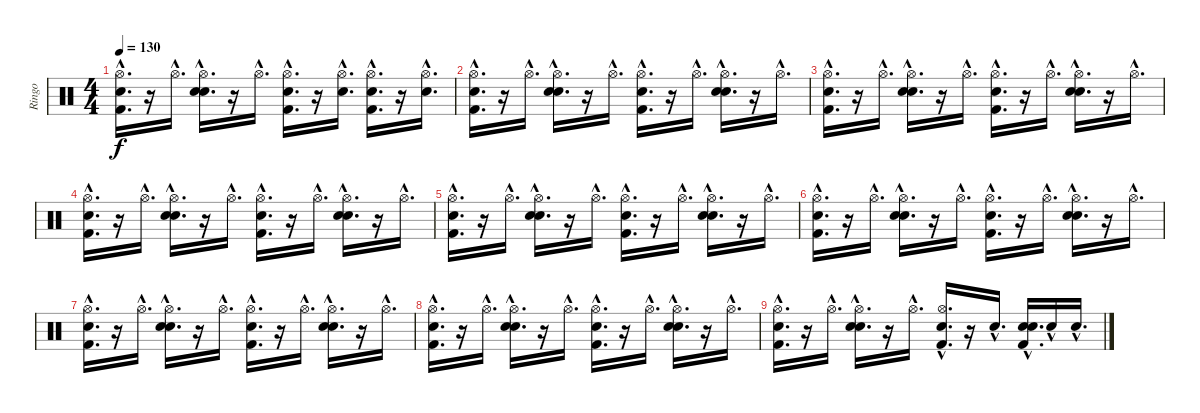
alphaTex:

\track ("Ringo" "Ringo") {instrument percussion}
\staff {score}
\articulation defaults
\ts (4 4)
\tempo 130
\clef neutral
\ks c
("Kick (hit) 2"{hac} "Hi-Hat (open)"{hac} "Hand Clap (hit)"{hac}).16{d dy f} r.16 "Hi-Hat (open)"{hac}.16{d} ("Snare (hit) 2"{hac} "Hi-Hat (open)"{hac} "Hand Clap (hit)"{hac}).16{d} r.16 "Hi-Hat (open)"{hac}.16{d} ("Kick (hit) 2"{hac} "Hi-Hat (open)"{hac} "Hand Clap (hit)"{hac}).16{d} r.16 ("Snare (hit) 2"{hac} "Hi-Hat (open)"{hac}).16{d} ("Kick (hit) 2"{hac} "Hi-Hat (open)"{hac} "Hand Clap (hit)"{hac}).16{d} r.16 ("Snare (hit) 2"{hac} "Hi-Hat (open)"{hac}).16{d} |
("Hi-Hat (open)"{hac} "Kick (hit) 2"{hac} "Hand Clap (hit)"{hac}).16{d} r.16 "Hi-Hat (open)"{hac}.16{d} ("Hi-Hat (open)"{hac} "Snare (hit) 2"{hac} "Hand Clap (hit)"{hac}).16{d} r.16 "Hi-Hat (open)"{hac}.16{d} ("Hi-Hat (open)"{hac} "Kick (hit) 2"{hac} "Hand Clap (hit)"{hac}).16{d} r.16 "Hi-Hat (open)"{hac}.16{d} ("Hi-Hat (open)"{hac} "Snare (hit) 2"{hac} "Hand Clap (hit)"{hac}).16{d} r.16 "Hi-Hat (open)"{hac}.16{d} |
("Kick (hit) 2"{hac} "Hi-Hat (open)"{hac} "Hand Clap (hit)"{hac}).16{d} r.16 "Hi-Hat (open)"{hac}.16{d} ("Snare (hit) 2"{hac} "Hi-Hat (open)"{hac} "Hand Clap (hit)"{hac}).16{d} r.16 "Hi-Hat (open)"{hac}.16{d} ("Kick (hit) 2"{hac} "Hi-Hat (open)"{hac} "Hand Clap (hit)"{hac}).16{d} r.16 "Hi-Hat (open)"{hac}.16{d} ("Snare (hit) 2"{hac} "Hi-Hat (open)"{hac} "Hand Clap (hit)"{hac}).16{d} r.16 "Hi-Hat (open)"{hac}.16{d} |
("Kick (hit) 2"{hac} "Hi-Hat (open)"{hac} "Hand Clap (hit)"{hac}).16{d} r.16 "Hi-Hat (open)"{hac}.16{d} ("Snare (hit) 2"{hac} "Hi-Hat (open)"{hac} "Hand Clap (hit)"{hac}).16{d} r.16 "Hi-Hat (open)"{hac}.16{d} ("Kick (hit) 2"{hac} "Hi-Hat (open)"{hac} "Hand Clap (hit)"{hac}).16{d} r.16 "Hi-Hat (open)"{hac}.16{d} ("Snare (hit) 2"{hac} "Hi-Hat (open)"{hac} "Hand Clap (hit)"{hac}).16{d} r.16 "Hi-Hat (open)"{hac}.16{d} |
("Kick (hit) 2"{hac} "Hi-Hat (open)"{hac} "Hand Clap (hit)"{hac}).16{d volume 13} r.16 "Hi-Hat (open)"{hac}.16{d volume 13} ("Snare (hit) 2"{hac} "Hi-Hat (open)"{hac} "Hand Clap (hit)"{hac}).16{d volume 13} r.16 "Hi-Hat (open)"{hac}.16{d volume 12} ("Kick (hit) 2"{hac} "Hi-Hat (open)"{hac} "Hand Clap (hit)"{hac}).16{d volume 12} r.16 "Hi-Hat (open)"{hac}.16{d volume 12} ("Snare (hit) 2"{hac} "Hi-Hat (open)"{hac} "Hand Clap (hit)"{hac}).16{d volume 11} r.16 "Hi-Hat (open)"{hac}.16{d volume 11} |
("Hi-Hat (open)"{hac} "Kick (hit) 2"{hac} "Hand Clap (hit)"{hac}).16{d volume 11} r.16 "Hi-Hat (open)"{hac}.16{d volume 10} ("Hi-Hat (open)"{hac} "Snare (hit) 2"{hac} "Hand Clap (hit)"{hac}).16{d volume 10} r.16 "Hi-Hat (open)"{hac}.16{d volume 10} ("Hi-Hat (open)"{hac} "Kick (hit) 2"{hac} "Hand Clap (hit)"{hac}).16{d volume 9} r.16 "Hi-Hat (open)"{hac}.16{d volume 9} ("Hi-Hat (open)"{hac} "Snare (hit) 2"{hac} "Hand Clap (hit)"{hac}).16{d volume 9} r.16 "Hi-Hat (open)"{hac}.16{d volume 8} |
("Kick (hit) 2"{hac} "Hi-Hat (open)"{hac} "Hand Clap (hit)"{hac}).16{d volume 8} r.16 "Hi-Hat (open)"{hac}.16{d volume 8} ("Snare (hit) 2"{hac} "Hi-Hat (open)"{hac} "Hand Clap (hit)"{hac}).16{d volume 7} r.16 "Hi-Hat (open)"{hac}.16{d volume 7} ("Kick (hit) 2"{hac} "Hi-Hat (open)"{hac} "Hand Clap (hit)"{hac}).16{d volume 7} r.16 "Hi-Hat (open)"{hac}.16{d volume 6} ("Snare (hit) 2"{hac} "Hi-Hat (open)"{hac} "Hand Clap (hit)"{hac}).16{d volume 6} r.16 "Hi-Hat (open)"{hac}.16{d volume 6} |
("Kick (hit) 2"{hac} "Hi-Hat (open)"{hac} "Hand Clap (hit)"{hac}).16{d volume 5} r.16 "Hi-Hat (open)"{hac}.16{d volume 5} ("Snare (hit) 2"{hac} "Hi-Hat (open)"{hac} "Hand Clap (hit)"{hac}).16{d volume 5} r.16 "Hi-Hat (open)"{hac}.16{d volume 4} ("Kick (hit) 2"{hac} "Hi-Hat (open)"{hac} "Hand Clap (hit)"{hac}).16{d volume 4} r.16 "Hi-Hat (open)"{hac}.16{d volume 4} ("Snare (hit) 2"{hac} "Hi-Hat (open)"{hac} "Hand Clap (hit)"{hac}).16{d volume 3} r.16 "Hi-Hat (open)"{hac}.16{d volume 3} |
("Kick (hit) 2"{hac} "Hi-Hat (open)"{hac} "Hand Clap (hit)"{hac}).16{d volume 3} r.16 "Hi-Hat (open)"{hac}.16{d volume 2} ("Snare (hit) 2"{hac} "Hi-Hat (open)"{hac} "Hand Clap (hit)"{hac}).16{d volume 2} r.16 "Hi-Hat (open)"{hac}.16{d volume 2} ("Kick (hit) 2"{hac} "Hi-Hat (open)"{hac} "Hand Clap (hit)"{hac}).16{d volume 1} r.16 "Snare (hit) 2"{hac}.16{d volume 1} ("Kick (hit) 2"{hac} "Snare (hit) 2"{hac} "Hand Clap (hit)"{hac}).16{d volume 1} "Snare (hit) 2"{hac}.16{volume 0} "Snare (hit) 2"{hac}.16{d volume 0}
